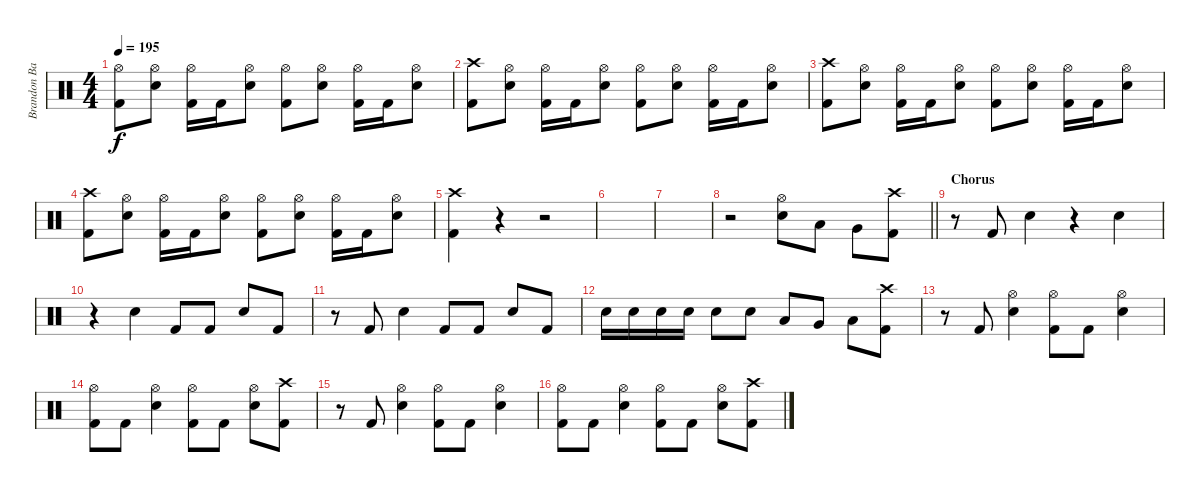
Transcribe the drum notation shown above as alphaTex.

\track ("Brandon Barnes - Drums" "Brandon Ba") {instrument percussion}
\staff {score}
\articulation defaults
\ts (4 4)
\tempo 195
\clef neutral
\ks c
("Hi-Hat (open)" "Kick (hit) 2").8{dy f} ("Snare (hit) 2" "Hi-Hat (open)").8 ("Kick (hit) 2" "Hi-Hat (open)").16 "Kick (hit) 2".16 ("Snare (hit) 2" "Hi-Hat (open)").8 ("Hi-Hat (open)" "Kick (hit) 2").8 ("Snare (hit) 2" "Hi-Hat (open)").8 ("Kick (hit) 2" "Hi-Hat (open)").16 "Kick (hit) 2".16 ("Snare (hit) 2" "Hi-Hat (open)").8 |
("Crash high (hit)" "Kick (hit) 2").8 ("Snare (hit) 2" "Hi-Hat (open)").8 ("Kick (hit) 2" "Hi-Hat (open)").16 "Kick (hit) 2".16 ("Snare (hit) 2" "Hi-Hat (open)").8 ("Hi-Hat (open)" "Kick (hit) 2").8 ("Snare (hit) 2" "Hi-Hat (open)").8 ("Kick (hit) 2" "Hi-Hat (open)").16 "Kick (hit) 2".16 ("Snare (hit) 2" "Hi-Hat (open)").8 |
("Crash high (hit)" "Kick (hit) 2").8 ("Snare (hit) 2" "Hi-Hat (open)").8 ("Kick (hit) 2" "Hi-Hat (open)").16 "Kick (hit) 2".16 ("Snare (hit) 2" "Hi-Hat (open)").8 ("Hi-Hat (open)" "Kick (hit) 2").8 ("Snare (hit) 2" "Hi-Hat (open)").8 ("Kick (hit) 2" "Hi-Hat (open)").16 "Kick (hit) 2".16 ("Snare (hit) 2" "Hi-Hat (open)").8 |
("Crash high (hit)" "Kick (hit) 2").8 ("Snare (hit) 2" "Hi-Hat (open)").8 ("Kick (hit) 2" "Hi-Hat (open)").16 "Kick (hit) 2".16 ("Snare (hit) 2" "Hi-Hat (open)").8 ("Hi-Hat (open)" "Kick (hit) 2").8 ("Snare (hit) 2" "Hi-Hat (open)").8 ("Kick (hit) 2" "Hi-Hat (open)").16 "Kick (hit) 2".16 ("Snare (hit) 2" "Hi-Hat (open)").8 |
("Crash high (hit)" "Kick (hit) 2").4 r.4 r.2 |
|
|
\barLineRight lightlight
r.2 ("Snare (hit) 2" "Hi-Hat (open)").8 "Low Tom (hit)".8 "Very Low Tom (hit)".8 ("Kick (hit) 2" "Crash high (hit)").8 |
\section ("" "Chorus")
r.8 "Kick (hit) 2".8 "Snare (hit) 2".4 r.4 "Snare (hit) 2".4 |
r.4 "Snare (hit) 2".4 "Kick (hit) 2".8 "Kick (hit) 2".8 "Snare (hit) 2".8 "Kick (hit) 2".8 |
r.8 "Kick (hit) 2".8 "Snare (hit) 2".4 "Kick (hit) 2".8 "Kick (hit) 2".8 "Snare (hit) 2".8 "Kick (hit) 2".8 |
"Snare (hit) 2".16 "Snare (hit) 2".16 "Snare (hit) 2".16 "Snare (hit) 2".16 "Snare (hit) 2".8 "Snare (hit) 2".8 "Low Tom (hit)".8 "Very Low Tom (hit)".8 "Low Floor Tom (hit)".8 ("Kick (hit) 2" "Crash high (hit)").8 |
r.8 "Kick (hit) 2".8 ("Snare (hit) 2" "Hi-Hat (open)").4 ("Kick (hit) 2" "Hi-Hat (open)").8 "Kick (hit) 2".8 ("Snare (hit) 2" "Hi-Hat (open)").4 |
("Kick (hit) 2" "Hi-Hat (open)").8 "Kick (hit) 2".8 ("Snare (hit) 2" "Hi-Hat (open)").4 ("Kick (hit) 2" "Hi-Hat (open)").8 "Kick (hit) 2".8 ("Snare (hit) 2" "Hi-Hat (open)").8 ("Crash high (hit)" "Kick (hit) 2").8 |
r.8 "Kick (hit) 2".8 ("Snare (hit) 2" "Hi-Hat (open)").4 ("Kick (hit) 2" "Hi-Hat (open)").8 "Kick (hit) 2".8 ("Snare (hit) 2" "Hi-Hat (open)").4 |
("Kick (hit) 2" "Hi-Hat (open)").8 "Kick (hit) 2".8 ("Snare (hit) 2" "Hi-Hat (open)").4 ("Kick (hit) 2" "Hi-Hat (open)").8 "Kick (hit) 2".8 ("Snare (hit) 2" "Hi-Hat (open)").8 ("Crash high (hit)" "Kick (hit) 2").8
